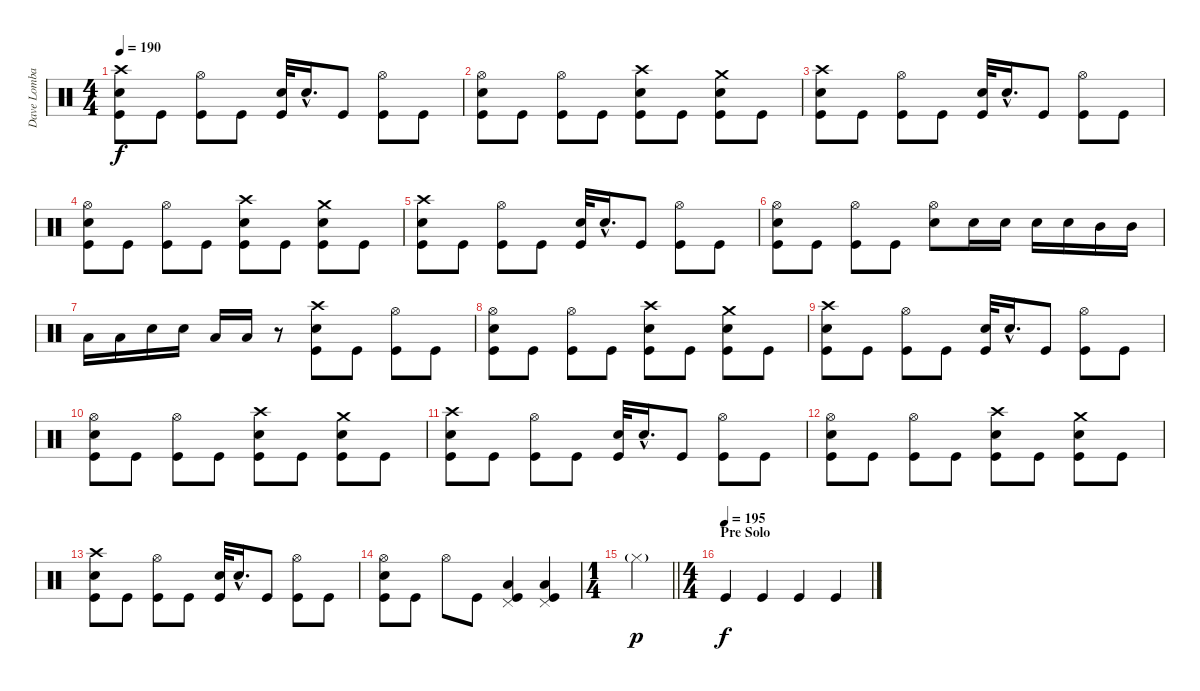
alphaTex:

\track ("Dave Lombardo" "Dave Lomba") {instrument percussion}
\staff {score}
\articulation defaults
\ts (4 4)
\tempo 190
\clef neutral
\ks c
("Crash high (hit)" "Electric Snare (hit)" "Kick (hit)").8{dy f} "Kick (hit)".8 ("Hi-Hat (open)" "Kick (hit)").8 "Kick (hit)".8 ("Electric Snare (hit)" "Kick (hit)").32 "Electric Snare (hit)"{hac}.16{d} "Kick (hit)".8 ("Hi-Hat (open)" "Kick (hit)").8 "Kick (hit)".8 |
("Hi-Hat (open)" "Electric Snare (hit)" "Kick (hit)").8 "Kick (hit)".8 ("Hi-Hat (open)" "Kick (hit)").8 "Kick (hit)".8 ("Crash high (hit)" "Electric Snare (hit)" "Kick (hit)").8 "Kick (hit)".8 ("Crash medium (hit)" "Electric Snare (hit)" "Kick (hit)").8 "Kick (hit)".8 |
("Crash high (hit)" "Electric Snare (hit)" "Kick (hit)").8 "Kick (hit)".8 ("Hi-Hat (open)" "Kick (hit)").8 "Kick (hit)".8 ("Electric Snare (hit)" "Kick (hit)").32 "Electric Snare (hit)"{hac}.16{d} "Kick (hit)".8 ("Hi-Hat (open)" "Kick (hit)").8 "Kick (hit)".8 |
("Hi-Hat (open)" "Electric Snare (hit)" "Kick (hit)").8 "Kick (hit)".8 ("Hi-Hat (open)" "Kick (hit)").8 "Kick (hit)".8 ("Crash high (hit)" "Electric Snare (hit)" "Kick (hit)").8 "Kick (hit)".8 ("Crash medium (hit)" "Electric Snare (hit)" "Kick (hit)").8 "Kick (hit)".8 |
("Crash high (hit)" "Electric Snare (hit)" "Kick (hit)").8 "Kick (hit)".8 ("Hi-Hat (open)" "Kick (hit)").8 "Kick (hit)".8 ("Electric Snare (hit)" "Kick (hit)").32 "Electric Snare (hit)"{hac}.16{d} "Kick (hit)".8 ("Hi-Hat (open)" "Kick (hit)").8 "Kick (hit)".8 |
("Hi-Hat (open)" "Electric Snare (hit)" "Kick (hit)").8 "Kick (hit)".8 ("Hi-Hat (open)" "Kick (hit)").8 "Kick (hit)".8 ("Hi-Hat (open)" "Electric Snare (hit)").8 "Electric Snare (hit)".16 "Electric Snare (hit)".16 "Electric Snare (hit)".16 "Electric Snare (hit)".16 "Mid Tom (hit)".16 "Mid Tom (hit)".16 |
"Low Tom (hit)".16 "Low Tom (hit)".16 "Electric Snare (hit)".16 "Electric Snare (hit)".16 "Low Tom (hit)".16 "Low Tom (hit)".16 r.8 ("Crash high (hit)" "Electric Snare (hit)" "Kick (hit)").8 "Kick (hit)".8 ("Hi-Hat (open)" "Kick (hit)").8 "Kick (hit)".8 |
("Hi-Hat (open)" "Electric Snare (hit)" "Kick (hit)").8 "Kick (hit)".8 ("Hi-Hat (open)" "Kick (hit)").8 "Kick (hit)".8 ("Crash high (hit)" "Electric Snare (hit)" "Kick (hit)").8 "Kick (hit)".8 ("Crash medium (hit)" "Electric Snare (hit)" "Kick (hit)").8 "Kick (hit)".8 |
("Crash high (hit)" "Electric Snare (hit)" "Kick (hit)").8 "Kick (hit)".8 ("Hi-Hat (open)" "Kick (hit)").8 "Kick (hit)".8 ("Electric Snare (hit)" "Kick (hit)").32 "Electric Snare (hit)"{hac}.16{d} "Kick (hit)".8 ("Hi-Hat (open)" "Kick (hit)").8 "Kick (hit)".8 |
("Hi-Hat (open)" "Electric Snare (hit)" "Kick (hit)").8 "Kick (hit)".8 ("Hi-Hat (open)" "Kick (hit)").8 "Kick (hit)".8 ("Crash high (hit)" "Electric Snare (hit)" "Kick (hit)").8 "Kick (hit)".8 ("Crash medium (hit)" "Electric Snare (hit)" "Kick (hit)").8 "Kick (hit)".8 |
("Crash high (hit)" "Electric Snare (hit)" "Kick (hit)").8 "Kick (hit)".8 ("Hi-Hat (open)" "Kick (hit)").8 "Kick (hit)".8 ("Electric Snare (hit)" "Kick (hit)").32 "Electric Snare (hit)"{hac}.16{d} "Kick (hit)".8 ("Hi-Hat (open)" "Kick (hit)").8 "Kick (hit)".8 |
("Hi-Hat (open)" "Electric Snare (hit)" "Kick (hit)").8 "Kick (hit)".8 ("Hi-Hat (open)" "Kick (hit)").8 "Kick (hit)".8 ("Crash high (hit)" "Electric Snare (hit)" "Kick (hit)").8 "Kick (hit)".8 ("Crash medium (hit)" "Electric Snare (hit)" "Kick (hit)").8 "Kick (hit)".8 |
("Crash high (hit)" "Electric Snare (hit)" "Kick (hit)").8 "Kick (hit)".8 ("Hi-Hat (open)" "Kick (hit)").8 "Kick (hit)".8 ("Electric Snare (hit)" "Kick (hit)").32 "Electric Snare (hit)"{hac}.16{d} "Kick (hit)".8 ("Hi-Hat (open)" "Kick (hit)").8 "Kick (hit)".8 |
("Hi-Hat (open)" "Electric Snare (hit)" "Kick (hit)").8 "Kick (hit)".8 "Hi-Hat (open)".8 "Kick (hit)".8 ("Pedal Hi-Hat (hit)" "Low Floor Tom (hit)" "Kick (hit)").4 ("Pedal Hi-Hat (hit)" "Low Floor Tom (hit)" "Kick (hit)").4 |
\ts (1 4)
\barLineRight lightlight "Hi-Hat (closed)"{g}.4{dy p}
|
\ts (4 4)
\section ("" "Pre Solo")
\tempo (195)
"Kick (hit)".4{dy f} "Kick (hit)".4 "Kick (hit)".4 "Kick (hit)".4
